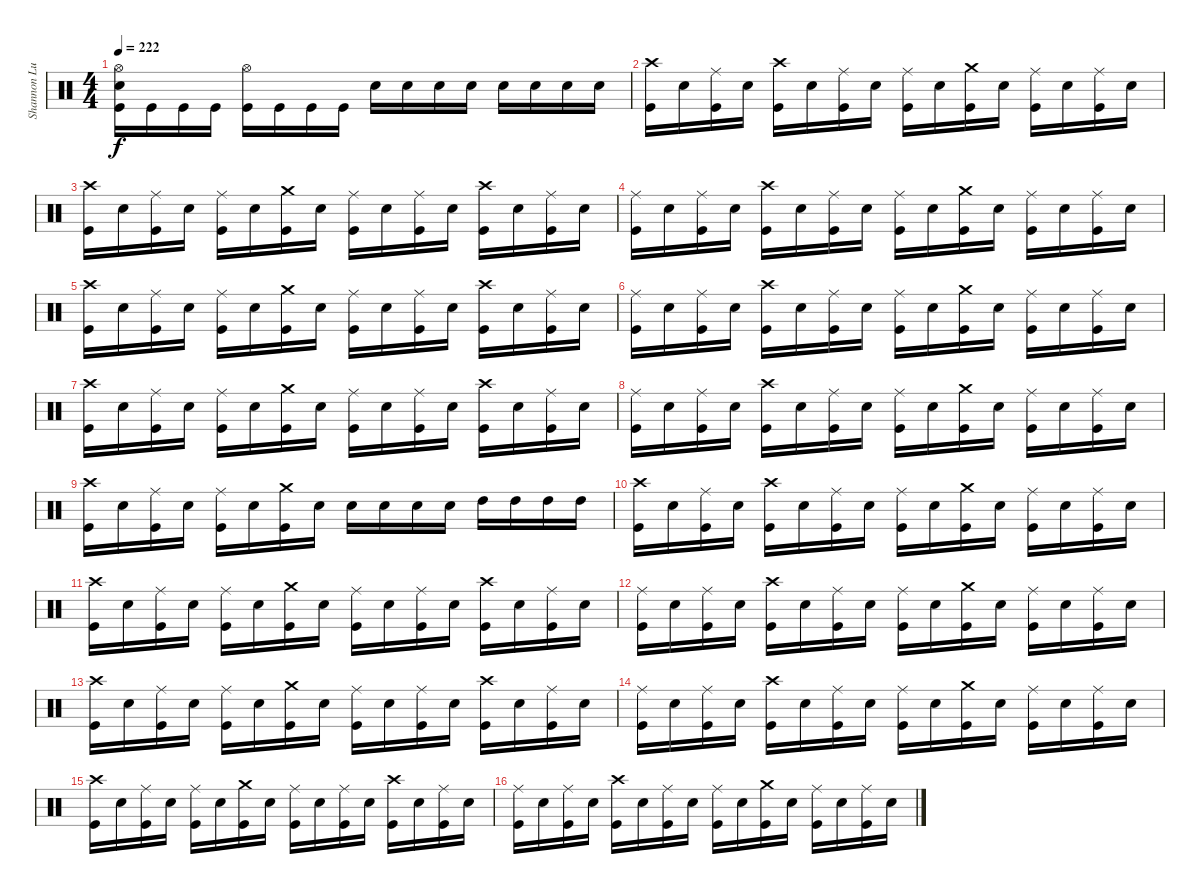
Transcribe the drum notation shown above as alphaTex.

\track ("Shannon Lucas" "Shannon Lu") {instrument percussion}
\staff {score}
\articulation defaults
\ts (4 4)
\tempo 222
\clef neutral
\ks c
("Hi-Hat (open)" "Snare (hit) 2" "Kick (hit)").16{dy f} "Kick (hit)".16 "Kick (hit)".16 "Kick (hit)".16 ("Hi-Hat (open)" "Kick (hit)").16 "Kick (hit)".16 "Kick (hit)".16 "Kick (hit)".16 "Snare (hit) 2".16 "Snare (hit) 2".16 "Snare (hit) 2".16 "Snare (hit) 2".16 "Snare (hit) 2".16 "Snare (hit) 2".16 "Snare (hit) 2".16 "Snare (hit) 2".16 |
("Crash high (hit)" "Kick (hit)").16 "Snare (hit) 2".16 ("Ride (middle)" "Kick (hit)").16 "Snare (hit) 2".16 ("Crash high (hit)" "Kick (hit)").16 "Snare (hit) 2".16 ("Ride (middle)" "Kick (hit)").16 "Snare (hit) 2".16 ("Ride (middle)" "Kick (hit)").16 "Snare (hit) 2".16 ("Crash medium (hit)" "Kick (hit)").16 "Snare (hit) 2".16 ("Ride (middle)" "Kick (hit)").16 "Snare (hit) 2".16 ("Ride (middle)" "Kick (hit)").16 "Snare (hit) 2".16 |
("Crash high (hit)" "Kick (hit)").16 "Snare (hit) 2".16 ("Ride (middle)" "Kick (hit)").16 "Snare (hit) 2".16 ("Ride (middle)" "Kick (hit)").16 "Snare (hit) 2".16 ("Crash medium (hit)" "Kick (hit)").16 "Snare (hit) 2".16 ("Ride (middle)" "Kick (hit)").16 "Snare (hit) 2".16 ("Ride (middle)" "Kick (hit)").16 "Snare (hit) 2".16 ("Crash high (hit)" "Kick (hit)").16 "Snare (hit) 2".16 ("Ride (middle)" "Kick (hit)").16 "Snare (hit) 2".16 |
("Ride (middle)" "Kick (hit)").16 "Snare (hit) 2".16 ("Ride (middle)" "Kick (hit)").16 "Snare (hit) 2".16 ("Crash high (hit)" "Kick (hit)").16 "Snare (hit) 2".16 ("Ride (middle)" "Kick (hit)").16 "Snare (hit) 2".16 ("Ride (middle)" "Kick (hit)").16 "Snare (hit) 2".16 ("Crash medium (hit)" "Kick (hit)").16 "Snare (hit) 2".16 ("Ride (middle)" "Kick (hit)").16 "Snare (hit) 2".16 ("Ride (middle)" "Kick (hit)").16 "Snare (hit) 2".16 |
("Crash high (hit)" "Kick (hit)").16 "Snare (hit) 2".16 ("Ride (middle)" "Kick (hit)").16 "Snare (hit) 2".16 ("Ride (middle)" "Kick (hit)").16 "Snare (hit) 2".16 ("Crash medium (hit)" "Kick (hit)").16 "Snare (hit) 2".16 ("Ride (middle)" "Kick (hit)").16 "Snare (hit) 2".16 ("Ride (middle)" "Kick (hit)").16 "Snare (hit) 2".16 ("Crash high (hit)" "Kick (hit)").16 "Snare (hit) 2".16 ("Ride (middle)" "Kick (hit)").16 "Snare (hit) 2".16 |
("Ride (middle)" "Kick (hit)").16 "Snare (hit) 2".16 ("Ride (middle)" "Kick (hit)").16 "Snare (hit) 2".16 ("Crash high (hit)" "Kick (hit)").16 "Snare (hit) 2".16 ("Ride (middle)" "Kick (hit)").16 "Snare (hit) 2".16 ("Ride (middle)" "Kick (hit)").16 "Snare (hit) 2".16 ("Crash medium (hit)" "Kick (hit)").16 "Snare (hit) 2".16 ("Ride (middle)" "Kick (hit)").16 "Snare (hit) 2".16 ("Ride (middle)" "Kick (hit)").16 "Snare (hit) 2".16 |
("Crash high (hit)" "Kick (hit)").16 "Snare (hit) 2".16 ("Ride (middle)" "Kick (hit)").16 "Snare (hit) 2".16 ("Ride (middle)" "Kick (hit)").16 "Snare (hit) 2".16 ("Crash medium (hit)" "Kick (hit)").16 "Snare (hit) 2".16 ("Ride (middle)" "Kick (hit)").16 "Snare (hit) 2".16 ("Ride (middle)" "Kick (hit)").16 "Snare (hit) 2".16 ("Crash high (hit)" "Kick (hit)").16 "Snare (hit) 2".16 ("Ride (middle)" "Kick (hit)").16 "Snare (hit) 2".16 |
("Ride (middle)" "Kick (hit)").16 "Snare (hit) 2".16 ("Ride (middle)" "Kick (hit)").16 "Snare (hit) 2".16 ("Crash high (hit)" "Kick (hit)").16 "Snare (hit) 2".16 ("Ride (middle)" "Kick (hit)").16 "Snare (hit) 2".16 ("Ride (middle)" "Kick (hit)").16 "Snare (hit) 2".16 ("Crash medium (hit)" "Kick (hit)").16 "Snare (hit) 2".16 ("Ride (middle)" "Kick (hit)").16 "Snare (hit) 2".16 ("Ride (middle)" "Kick (hit)").16 "Snare (hit) 2".16 |
("Crash high (hit)" "Kick (hit)").16 "Snare (hit) 2".16 ("Ride (middle)" "Kick (hit)").16 "Snare (hit) 2".16 ("Ride (middle)" "Kick (hit)").16 "Snare (hit) 2".16 ("Crash medium (hit)" "Kick (hit)").16 "Snare (hit) 2".16 "Snare (hit) 2".16 "Snare (hit) 2".16 "Snare (hit) 2".16 "Snare (hit) 2".16 "High Tom (hit)".16 "High Tom (hit)".16 "High Tom (hit)".16 "High Tom (hit)".16 |
("Crash high (hit)" "Kick (hit)").16 "Snare (hit) 2".16 ("Ride (middle)" "Kick (hit)").16 "Snare (hit) 2".16 ("Crash high (hit)" "Kick (hit)").16 "Snare (hit) 2".16 ("Ride (middle)" "Kick (hit)").16 "Snare (hit) 2".16 ("Ride (middle)" "Kick (hit)").16 "Snare (hit) 2".16 ("Crash medium (hit)" "Kick (hit)").16 "Snare (hit) 2".16 ("Ride (middle)" "Kick (hit)").16 "Snare (hit) 2".16 ("Ride (middle)" "Kick (hit)").16 "Snare (hit) 2".16 |
("Crash high (hit)" "Kick (hit)").16 "Snare (hit) 2".16 ("Ride (middle)" "Kick (hit)").16 "Snare (hit) 2".16 ("Ride (middle)" "Kick (hit)").16 "Snare (hit) 2".16 ("Crash medium (hit)" "Kick (hit)").16 "Snare (hit) 2".16 ("Ride (middle)" "Kick (hit)").16 "Snare (hit) 2".16 ("Ride (middle)" "Kick (hit)").16 "Snare (hit) 2".16 ("Crash high (hit)" "Kick (hit)").16 "Snare (hit) 2".16 ("Ride (middle)" "Kick (hit)").16 "Snare (hit) 2".16 |
("Ride (middle)" "Kick (hit)").16 "Snare (hit) 2".16 ("Ride (middle)" "Kick (hit)").16 "Snare (hit) 2".16 ("Crash high (hit)" "Kick (hit)").16 "Snare (hit) 2".16 ("Ride (middle)" "Kick (hit)").16 "Snare (hit) 2".16 ("Ride (middle)" "Kick (hit)").16 "Snare (hit) 2".16 ("Crash medium (hit)" "Kick (hit)").16 "Snare (hit) 2".16 ("Ride (middle)" "Kick (hit)").16 "Snare (hit) 2".16 ("Ride (middle)" "Kick (hit)").16 "Snare (hit) 2".16 |
("Crash high (hit)" "Kick (hit)").16 "Snare (hit) 2".16 ("Ride (middle)" "Kick (hit)").16 "Snare (hit) 2".16 ("Ride (middle)" "Kick (hit)").16 "Snare (hit) 2".16 ("Crash medium (hit)" "Kick (hit)").16 "Snare (hit) 2".16 ("Ride (middle)" "Kick (hit)").16 "Snare (hit) 2".16 ("Ride (middle)" "Kick (hit)").16 "Snare (hit) 2".16 ("Crash high (hit)" "Kick (hit)").16 "Snare (hit) 2".16 ("Ride (middle)" "Kick (hit)").16 "Snare (hit) 2".16 |
("Ride (middle)" "Kick (hit)").16 "Snare (hit) 2".16 ("Ride (middle)" "Kick (hit)").16 "Snare (hit) 2".16 ("Crash high (hit)" "Kick (hit)").16 "Snare (hit) 2".16 ("Ride (middle)" "Kick (hit)").16 "Snare (hit) 2".16 ("Ride (middle)" "Kick (hit)").16 "Snare (hit) 2".16 ("Crash medium (hit)" "Kick (hit)").16 "Snare (hit) 2".16 ("Ride (middle)" "Kick (hit)").16 "Snare (hit) 2".16 ("Ride (middle)" "Kick (hit)").16 "Snare (hit) 2".16 |
("Crash high (hit)" "Kick (hit)").16 "Snare (hit) 2".16 ("Ride (middle)" "Kick (hit)").16 "Snare (hit) 2".16 ("Ride (middle)" "Kick (hit)").16 "Snare (hit) 2".16 ("Crash medium (hit)" "Kick (hit)").16 "Snare (hit) 2".16 ("Ride (middle)" "Kick (hit)").16 "Snare (hit) 2".16 ("Ride (middle)" "Kick (hit)").16 "Snare (hit) 2".16 ("Crash high (hit)" "Kick (hit)").16 "Snare (hit) 2".16 ("Ride (middle)" "Kick (hit)").16 "Snare (hit) 2".16 |
("Ride (middle)" "Kick (hit)").16 "Snare (hit) 2".16 ("Ride (middle)" "Kick (hit)").16 "Snare (hit) 2".16 ("Crash high (hit)" "Kick (hit)").16 "Snare (hit) 2".16 ("Ride (middle)" "Kick (hit)").16 "Snare (hit) 2".16 ("Ride (middle)" "Kick (hit)").16 "Snare (hit) 2".16 ("Crash medium (hit)" "Kick (hit)").16 "Snare (hit) 2".16 ("Ride (middle)" "Kick (hit)").16 "Snare (hit) 2".16 ("Ride (middle)" "Kick (hit)").16 "Snare (hit) 2".16
